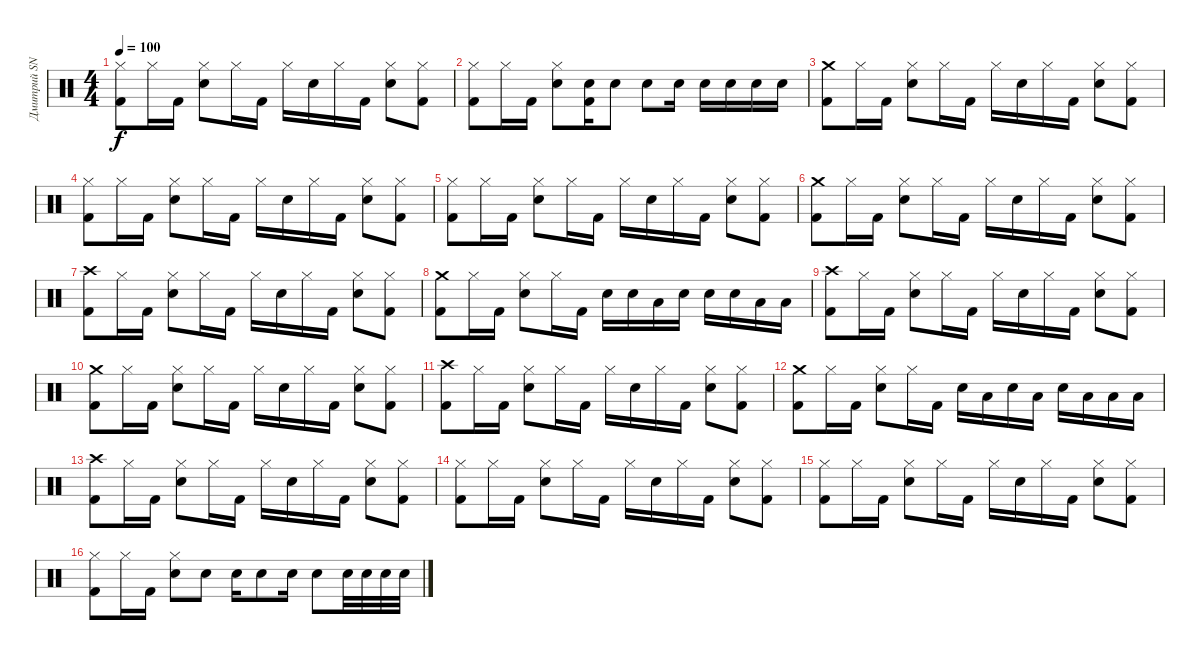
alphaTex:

\track ("Дмитрий SNAKE Хакимов" "Дмитрий SN") {instrument percussion}
\staff {score}
\articulation defaults
\ts (4 4)
\tempo 100
\clef neutral
\ks c
("Hi-Hat (closed)" "Kick (hit) 2").8{dy f} "Hi-Hat (closed)".16 "Kick (hit) 2".16 ("Hi-Hat (closed)" "Snare (hit) 2").8 "Hi-Hat (closed)".16 "Kick (hit) 2".16 "Hi-Hat (closed)".16 "Snare (hit) 2".16 "Hi-Hat (closed)".16 "Kick (hit) 2".16 ("Hi-Hat (closed)" "Snare (hit) 2").8 ("Hi-Hat (closed)" "Kick (hit) 2").8 |
("Hi-Hat (closed)" "Kick (hit) 2").8 "Hi-Hat (closed)".16 "Kick (hit) 2".16 ("Hi-Hat (closed)" "Snare (hit) 2").8 ("Snare (hit) 2" "Kick (hit) 2").16 "Snare (hit) 2".8 "Snare (hit) 2".8 "Snare (hit) 2".16 "Snare (hit) 2".16 "Snare (hit) 2".16 "Snare (hit) 2".16 "Snare (hit) 2".16 |
("Crash medium (hit)" "Kick (hit) 2").8 "Hi-Hat (closed)".16 "Kick (hit) 2".16 ("Hi-Hat (closed)" "Snare (hit) 2").8 "Hi-Hat (closed)".16 "Kick (hit) 2".16 "Hi-Hat (closed)".16 "Snare (hit) 2".16 "Hi-Hat (closed)".16 "Kick (hit) 2".16 ("Hi-Hat (closed)" "Snare (hit) 2").8 ("Hi-Hat (closed)" "Kick (hit) 2").8 |
("Hi-Hat (closed)" "Kick (hit) 2").8 "Hi-Hat (closed)".16 "Kick (hit) 2".16 ("Hi-Hat (closed)" "Snare (hit) 2").8 "Hi-Hat (closed)".16 "Kick (hit) 2".16 "Hi-Hat (closed)".16 "Snare (hit) 2".16 "Hi-Hat (closed)".16 "Kick (hit) 2".16 ("Hi-Hat (closed)" "Snare (hit) 2").8 ("Hi-Hat (closed)" "Kick (hit) 2").8 |
("Hi-Hat (closed)" "Kick (hit) 2").8 "Hi-Hat (closed)".16 "Kick (hit) 2".16 ("Hi-Hat (closed)" "Snare (hit) 2").8 "Hi-Hat (closed)".16 "Kick (hit) 2".16 "Hi-Hat (closed)".16 "Snare (hit) 2".16 "Hi-Hat (closed)".16 "Kick (hit) 2".16 ("Hi-Hat (closed)" "Snare (hit) 2").8 ("Hi-Hat (closed)" "Kick (hit) 2").8 |
("Crash medium (hit)" "Kick (hit) 2").8 "Hi-Hat (closed)".16 "Kick (hit) 2".16 ("Hi-Hat (closed)" "Snare (hit) 2").8 "Hi-Hat (closed)".16 "Kick (hit) 2".16 "Hi-Hat (closed)".16 "Snare (hit) 2".16 "Hi-Hat (closed)".16 "Kick (hit) 2".16 ("Hi-Hat (closed)" "Snare (hit) 2").8 ("Hi-Hat (closed)" "Kick (hit) 2").8 |
("Crash high (hit)" "Kick (hit) 2").8 "Hi-Hat (closed)".16 "Kick (hit) 2".16 ("Hi-Hat (closed)" "Snare (hit) 2").8 "Hi-Hat (closed)".16 "Kick (hit) 2".16 "Hi-Hat (closed)".16 "Snare (hit) 2".16 "Hi-Hat (closed)".16 "Kick (hit) 2".16 ("Hi-Hat (closed)" "Snare (hit) 2").8 ("Hi-Hat (closed)" "Kick (hit) 2").8 |
("Crash medium (hit)" "Kick (hit) 2").8 "Hi-Hat (closed)".16 "Kick (hit) 2".16 ("Hi-Hat (closed)" "Snare (hit) 2").8 "Hi-Hat (closed)".16 "Kick (hit) 2".16 "Snare (hit) 2".16 "Snare (hit) 2".16 "Low Tom (hit)".16 "Snare (hit) 2".16 "Snare (hit) 2".16 "Snare (hit) 2".16 "Low Tom (hit)".16 "Low Tom (hit)".16 |
("Crash high (hit)" "Kick (hit) 2").8 "Hi-Hat (closed)".16 "Kick (hit) 2".16 ("Hi-Hat (closed)" "Snare (hit) 2").8 "Hi-Hat (closed)".16 "Kick (hit) 2".16 "Hi-Hat (closed)".16 "Snare (hit) 2".16 "Hi-Hat (closed)".16 "Kick (hit) 2".16 ("Hi-Hat (closed)" "Snare (hit) 2").8 ("Hi-Hat (closed)" "Kick (hit) 2").8 |
("Crash medium (hit)" "Kick (hit) 2").8 "Hi-Hat (closed)".16 "Kick (hit) 2".16 ("Hi-Hat (closed)" "Snare (hit) 2").8 "Hi-Hat (closed)".16 "Kick (hit) 2".16 "Hi-Hat (closed)".16 "Snare (hit) 2".16 "Hi-Hat (closed)".16 "Kick (hit) 2".16 ("Hi-Hat (closed)" "Snare (hit) 2").8 ("Hi-Hat (closed)" "Kick (hit) 2").8 |
("Crash high (hit)" "Kick (hit) 2").8 "Hi-Hat (closed)".16 "Kick (hit) 2".16 ("Hi-Hat (closed)" "Snare (hit) 2").8 "Hi-Hat (closed)".16 "Kick (hit) 2".16 "Hi-Hat (closed)".16 "Snare (hit) 2".16 "Hi-Hat (closed)".16 "Kick (hit) 2".16 ("Hi-Hat (closed)" "Snare (hit) 2").8 ("Hi-Hat (closed)" "Kick (hit) 2").8 |
("Crash medium (hit)" "Kick (hit) 2").8 "Hi-Hat (closed)".16 "Kick (hit) 2".16 ("Hi-Hat (closed)" "Snare (hit) 2").8 "Hi-Hat (closed)".16 "Kick (hit) 2".16 "Snare (hit) 2".16 "Low Tom (hit)".16 "Snare (hit) 2".16 "Low Tom (hit)".16 "Snare (hit) 2".16 "Low Tom (hit)".16 "Low Tom (hit)".16 "Low Tom (hit)".16 |
("Crash high (hit)" "Kick (hit) 2").8 "Hi-Hat (closed)".16 "Kick (hit) 2".16 ("Hi-Hat (closed)" "Snare (hit) 2").8 "Hi-Hat (closed)".16 "Kick (hit) 2".16 "Hi-Hat (closed)".16 "Snare (hit) 2".16 "Hi-Hat (closed)".16 "Kick (hit) 2".16 ("Hi-Hat (closed)" "Snare (hit) 2").8 ("Hi-Hat (closed)" "Kick (hit) 2").8 |
("Hi-Hat (closed)" "Kick (hit) 2").8 "Hi-Hat (closed)".16 "Kick (hit) 2".16 ("Hi-Hat (closed)" "Snare (hit) 2").8 "Hi-Hat (closed)".16 "Kick (hit) 2".16 "Hi-Hat (closed)".16 "Snare (hit) 2".16 "Hi-Hat (closed)".16 "Kick (hit) 2".16 ("Hi-Hat (closed)" "Snare (hit) 2").8 ("Hi-Hat (closed)" "Kick (hit) 2").8 |
("Hi-Hat (closed)" "Kick (hit) 2").8 "Hi-Hat (closed)".16 "Kick (hit) 2".16 ("Hi-Hat (closed)" "Snare (hit) 2").8 "Hi-Hat (closed)".16 "Kick (hit) 2".16 "Hi-Hat (closed)".16 "Snare (hit) 2".16 "Hi-Hat (closed)".16 "Kick (hit) 2".16 ("Hi-Hat (closed)" "Snare (hit) 2").8 ("Hi-Hat (closed)" "Kick (hit) 2").8 |
("Hi-Hat (closed)" "Kick (hit) 2").8 "Hi-Hat (closed)".16 "Kick (hit) 2".16 ("Hi-Hat (closed)" "Snare (hit) 2").8 "Snare (hit) 2".8 "Snare (hit) 2".16 "Snare (hit) 2".8 "Snare (hit) 2".16 "Snare (hit) 2".8 "Snare (hit) 2".32 "Snare (hit) 2".32 "Snare (hit) 2".32 "Snare (hit) 2".32
